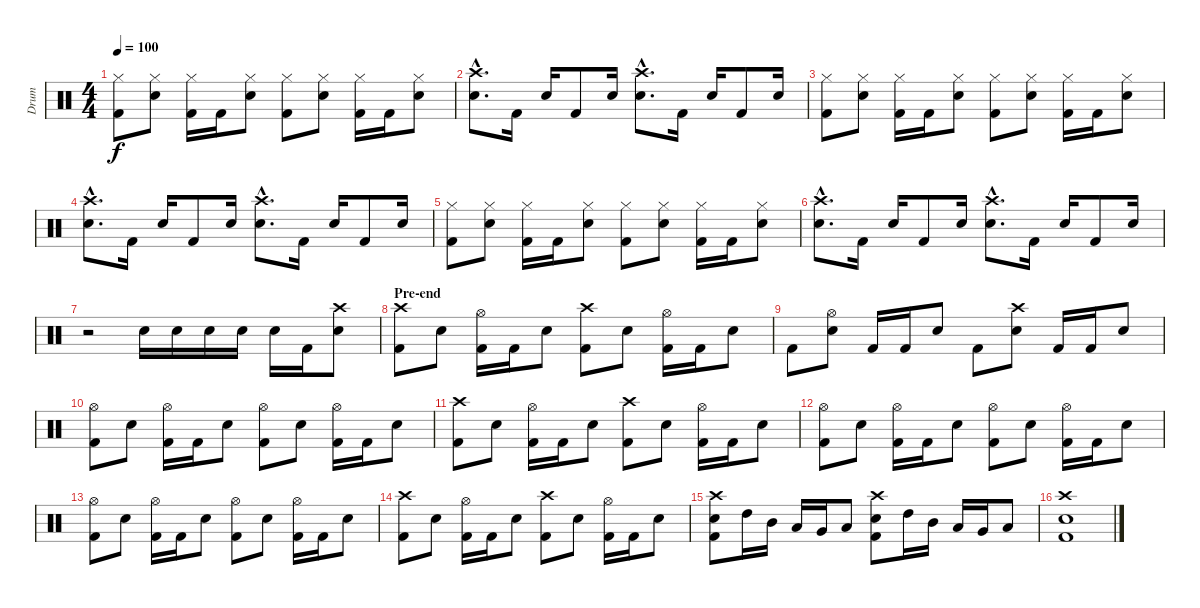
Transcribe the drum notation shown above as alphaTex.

\track ("Drum" "Drum") {instrument percussion}
\staff {score}
\articulation defaults
\ts (4 4)
\tempo 100
\clef neutral
\ks c
("Hi-Hat (closed)" "Kick (hit) 2").8{dy f} ("Hi-Hat (closed)" "Electric Snare (hit)").8 ("Hi-Hat (closed)" "Kick (hit) 2").16 "Kick (hit) 2".16 ("Hi-Hat (closed)" "Electric Snare (hit)").8 ("Hi-Hat (closed)" "Kick (hit) 2").8 ("Hi-Hat (closed)" "Electric Snare (hit)").8 ("Hi-Hat (closed)" "Kick (hit) 2").16 "Kick (hit) 2".16 ("Hi-Hat (closed)" "Electric Snare (hit)").8 |
("Crash high (hit)"{hac} "Electric Snare (hit)"{hac}).8{d} "Kick (hit) 2".16 "Electric Snare (hit)".16 "Kick (hit) 2".8 "Electric Snare (hit)".16 ("Crash high (hit)"{hac} "Electric Snare (hit)"{hac}).8{d} "Kick (hit) 2".16 "Electric Snare (hit)".16 "Kick (hit) 2".8 "Electric Snare (hit)".16 |
("Hi-Hat (closed)" "Kick (hit) 2").8 ("Hi-Hat (closed)" "Electric Snare (hit)").8 ("Hi-Hat (closed)" "Kick (hit) 2").16 "Kick (hit) 2".16 ("Hi-Hat (closed)" "Electric Snare (hit)").8 ("Hi-Hat (closed)" "Kick (hit) 2").8 ("Hi-Hat (closed)" "Electric Snare (hit)").8 ("Hi-Hat (closed)" "Kick (hit) 2").16 "Kick (hit) 2".16 ("Hi-Hat (closed)" "Electric Snare (hit)").8 |
("Crash high (hit)"{hac} "Electric Snare (hit)"{hac}).8{d} "Kick (hit) 2".16 "Electric Snare (hit)".16 "Kick (hit) 2".8 "Electric Snare (hit)".16 ("Crash high (hit)"{hac} "Electric Snare (hit)"{hac}).8{d} "Kick (hit) 2".16 "Electric Snare (hit)".16 "Kick (hit) 2".8 "Electric Snare (hit)".16 |
("Hi-Hat (closed)" "Kick (hit) 2").8 ("Hi-Hat (closed)" "Electric Snare (hit)").8 ("Hi-Hat (closed)" "Kick (hit) 2").16 "Kick (hit) 2".16 ("Hi-Hat (closed)" "Electric Snare (hit)").8 ("Hi-Hat (closed)" "Kick (hit) 2").8 ("Hi-Hat (closed)" "Electric Snare (hit)").8 ("Hi-Hat (closed)" "Kick (hit) 2").16 "Kick (hit) 2".16 ("Hi-Hat (closed)" "Electric Snare (hit)").8 |
("Crash high (hit)"{hac} "Electric Snare (hit)"{hac}).8{d} "Kick (hit) 2".16 "Electric Snare (hit)".16 "Kick (hit) 2".8 "Electric Snare (hit)".16 ("Crash high (hit)"{hac} "Electric Snare (hit)"{hac}).8{d} "Kick (hit) 2".16 "Electric Snare (hit)".16 "Kick (hit) 2".8 "Electric Snare (hit)".16 |
r.2 "Electric Snare (hit)".16 "Electric Snare (hit)".16 "Electric Snare (hit)".16 "Electric Snare (hit)".16 "Electric Snare (hit)".16 "Kick (hit) 2".16 ("Crash high (hit)" "Electric Snare (hit)").8 |
\section ("" "Pre-end")
("Crash high (hit)" "Kick (hit) 2").8 "Electric Snare (hit)".8 ("Hi-Hat (open)" "Kick (hit) 2").16 "Kick (hit) 2".16 "Electric Snare (hit)".8 ("Crash high (hit)" "Kick (hit) 2").8 "Electric Snare (hit)".8 ("Hi-Hat (open)" "Kick (hit) 2").16 "Kick (hit) 2".16 "Electric Snare (hit)".8 |
"Kick (hit) 2".8 ("Hi-Hat (open)" "Electric Snare (hit)").8 "Kick (hit) 2".16 "Kick (hit) 2".16 "Electric Snare (hit)".8 "Kick (hit) 2".8 ("Crash high (hit)" "Electric Snare (hit)").8 "Kick (hit) 2".16 "Kick (hit) 2".16 "Electric Snare (hit)".8 |
("Hi-Hat (open)" "Kick (hit) 2").8 "Electric Snare (hit)".8 ("Hi-Hat (open)" "Kick (hit) 2").16 "Kick (hit) 2".16 "Electric Snare (hit)".8 ("Hi-Hat (open)" "Kick (hit) 2").8 "Electric Snare (hit)".8 ("Hi-Hat (open)" "Kick (hit) 2").16 "Kick (hit) 2".16 "Electric Snare (hit)".8 |
("Crash high (hit)" "Kick (hit) 2").8 "Electric Snare (hit)".8 ("Hi-Hat (open)" "Kick (hit) 2").16 "Kick (hit) 2".16 "Electric Snare (hit)".8 ("Crash high (hit)" "Kick (hit) 2").8 "Electric Snare (hit)".8 ("Hi-Hat (open)" "Kick (hit) 2").16 "Kick (hit) 2".16 "Electric Snare (hit)".8 |
("Hi-Hat (open)" "Kick (hit) 2").8 "Electric Snare (hit)".8 ("Hi-Hat (open)" "Kick (hit) 2").16 "Kick (hit) 2".16 "Electric Snare (hit)".8 ("Hi-Hat (open)" "Kick (hit) 2").8 "Electric Snare (hit)".8 ("Hi-Hat (open)" "Kick (hit) 2").16 "Kick (hit) 2".16 "Electric Snare (hit)".8 |
("Hi-Hat (open)" "Kick (hit) 2").8 "Electric Snare (hit)".8 ("Hi-Hat (open)" "Kick (hit) 2").16 "Kick (hit) 2".16 "Electric Snare (hit)".8 ("Hi-Hat (open)" "Kick (hit) 2").8 "Electric Snare (hit)".8 ("Hi-Hat (open)" "Kick (hit) 2").16 "Kick (hit) 2".16 "Electric Snare (hit)".8 |
("Crash high (hit)" "Kick (hit) 2").8 "Electric Snare (hit)".8 ("Hi-Hat (open)" "Kick (hit) 2").16 "Kick (hit) 2".16 "Electric Snare (hit)".8 ("Crash high (hit)" "Kick (hit) 2").8 "Electric Snare (hit)".8 ("Hi-Hat (open)" "Kick (hit) 2").16 "Kick (hit) 2".16 "Electric Snare (hit)".8 |
("Crash high (hit)" "Electric Snare (hit)" "Kick (hit) 2").8 "High Tom (hit)".16 "Mid Tom (hit)".16 "Low Tom (hit)".16 "Very Low Tom (hit)".16 "Low Floor Tom (hit)".8 ("Crash high (hit)" "Electric Snare (hit)" "Kick (hit) 2").8 "High Tom (hit)".16 "Mid Tom (hit)".16 "Low Tom (hit)".16 "Very Low Tom (hit)".16 "Low Floor Tom (hit)".8 |
("Crash high (hit)" "Electric Snare (hit)" "Kick (hit) 2").1
